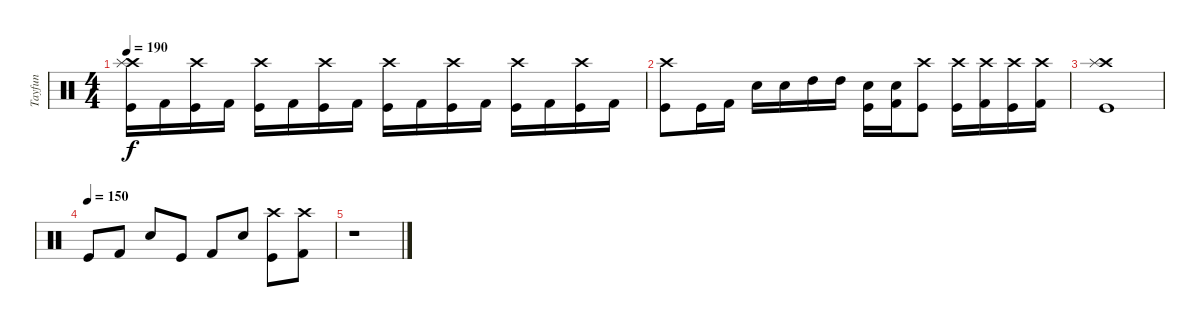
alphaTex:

\track ("Tayfun" "Tayfun") {instrument percussion}
\staff {score}
\articulation defaults
\ts (4 4)
\tempo 190
\clef neutral
\ks c
("Crash high (hit)" "Splash (hit)" "Kick (hit)").16{dy f} "Kick (hit) 2".16 ("Crash high (hit)" "Kick (hit)").16 "Kick (hit) 2".16 ("Crash high (hit)" "Kick (hit)").16 "Kick (hit) 2".16 ("Crash high (hit)" "Kick (hit)").16 "Kick (hit) 2".16 ("Crash high (hit)" "Kick (hit)").16 "Kick (hit) 2".16 ("Crash high (hit)" "Kick (hit)").16 "Kick (hit) 2".16 ("Crash high (hit)" "Kick (hit)").16 "Kick (hit) 2".16 ("Crash high (hit)" "Kick (hit)").16 "Kick (hit) 2".16 |
("Crash high (hit)" "Kick (hit)").8 "Kick (hit)".16 "Kick (hit) 2".16 "Snare (hit) 2".16 "Snare (hit) 2".16 "High Tom (hit)".16 "High Tom (hit)".16 ("Snare (hit) 2" "Kick (hit)").16 ("Snare (hit) 2" "Kick (hit) 2").16 ("Crash high (hit)" "Kick (hit)").8 ("Crash high (hit)" "Kick (hit)").16 ("Crash high (hit)" "Kick (hit) 2").16 ("Crash high (hit)" "Kick (hit)").16 ("Crash high (hit)" "Kick (hit) 2").16 |
("Crash high (hit)" "Splash (hit)" "Kick (hit)").1 |
\tempo (150)
"Kick (hit)".8 "Kick (hit) 2".8 "Snare (hit) 2".8 "Kick (hit)".8 "Kick (hit) 2".8 "Snare (hit) 2".8 ("Kick (hit)" "Crash high (hit)").8 ("Kick (hit) 2" "Crash high (hit)").8 |
r.1
